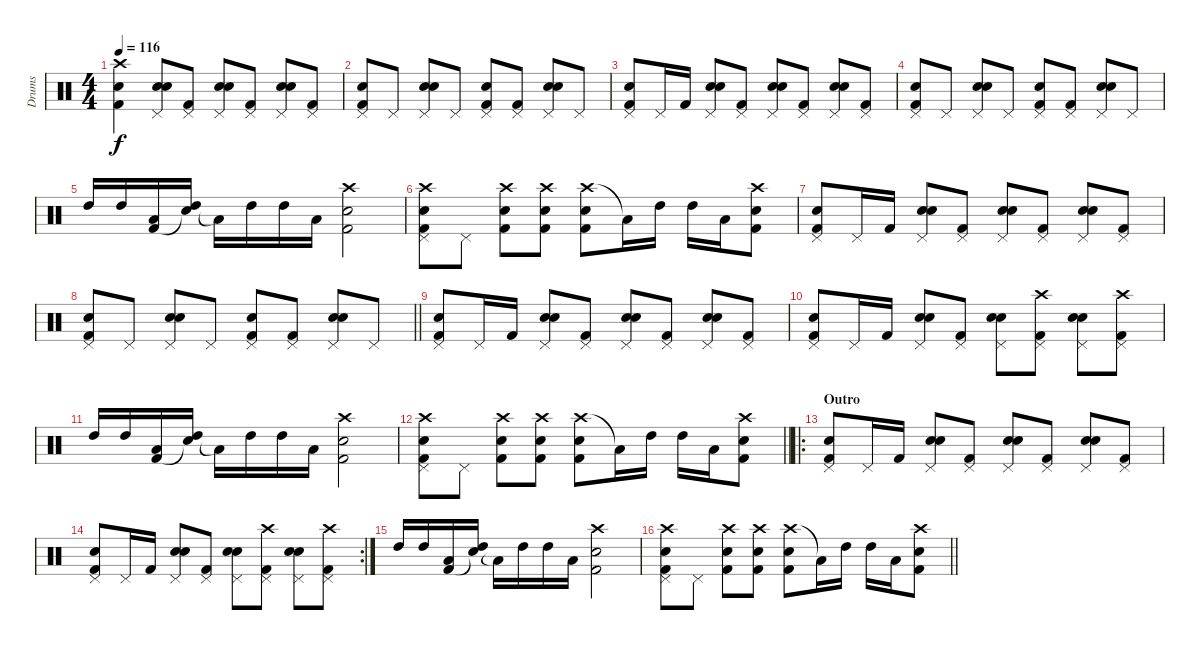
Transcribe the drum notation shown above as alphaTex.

\track ("Drums" "Drums") {instrument percussion}
\staff {score}
\articulation defaults
\ts (4 4)
\tempo 116
\clef neutral
\ks c
("Crash high (hit)" "Snare (hit) 2" "Kick (hit) 2").4{dy f} ("Hand Clap (hit)" "Pedal Hi-Hat (hit)" "Snare (hit) 2").8 ("Pedal Hi-Hat (hit)" "Kick (hit) 2").8 ("Hand Clap (hit)" "Pedal Hi-Hat (hit)" "Snare (hit) 2").8 ("Pedal Hi-Hat (hit)" "Kick (hit) 2").8 ("Hand Clap (hit)" "Pedal Hi-Hat (hit)" "Snare (hit) 2").8 ("Pedal Hi-Hat (hit)" "Kick (hit) 2").8 |
("Hand Clap (hit)" "Pedal Hi-Hat (hit)" "Kick (hit) 2").8 "Pedal Hi-Hat (hit)".8 ("Hand Clap (hit)" "Pedal Hi-Hat (hit)" "Snare (hit) 2").8 "Pedal Hi-Hat (hit)".8 ("Hand Clap (hit)" "Pedal Hi-Hat (hit)" "Kick (hit) 2").8 ("Pedal Hi-Hat (hit)" "Kick (hit) 2").8 ("Hand Clap (hit)" "Pedal Hi-Hat (hit)" "Snare (hit) 2").8 "Pedal Hi-Hat (hit)".8 |
("Hand Clap (hit)" "Pedal Hi-Hat (hit)" "Kick (hit) 2").8 "Pedal Hi-Hat (hit)".16 "Kick (hit) 2".16 ("Hand Clap (hit)" "Pedal Hi-Hat (hit)" "Snare (hit) 2").8 ("Pedal Hi-Hat (hit)" "Kick (hit) 2").8 ("Hand Clap (hit)" "Pedal Hi-Hat (hit)" "Snare (hit) 2").8 ("Pedal Hi-Hat (hit)" "Kick (hit) 2").8 ("Hand Clap (hit)" "Pedal Hi-Hat (hit)" "Snare (hit) 2").8 ("Pedal Hi-Hat (hit)" "Kick (hit) 2").8 |
("Hand Clap (hit)" "Pedal Hi-Hat (hit)" "Kick (hit) 2").8 "Pedal Hi-Hat (hit)".8 ("Hand Clap (hit)" "Pedal Hi-Hat (hit)" "Snare (hit) 2").8{volume 16} "Pedal Hi-Hat (hit)".8 ("Hand Clap (hit)" "Pedal Hi-Hat (hit)" "Kick (hit) 2").8 ("Pedal Hi-Hat (hit)" "Kick (hit) 2").8 ("Hand Clap (hit)" "Pedal Hi-Hat (hit)" "Snare (hit) 2").8 "Pedal Hi-Hat (hit)".8 |
"High Tom (hit)".16 "High Tom (hit)".16 ("Low Tom (hit)" "Kick (hit) 2").16 ("High Tom (hit)" "Snare (hit)"{t}).16 "Low Tom (hit)"{t}.16 "High Tom (hit)".16 "High Tom (hit)".16 "Low Tom (hit)".16 ("Crash high (hit)" "Electric Snare (hit)" "Kick (hit) 2").2 |
("Crash high (hit)" "Hand Clap (hit)" "Pedal Hi-Hat (hit)" "Kick (hit) 2").8 "Pedal Hi-Hat (hit)".8 ("Crash high (hit)" "Electric Snare (hit)" "Kick (hit) 2").8 ("Crash high (hit)" "Electric Snare (hit)" "Kick (hit) 2").8 ("Crash high (hit)" "Electric Snare (hit)" "Kick (hit) 2").8 "Low Tom (hit)"{t}.16 "High Tom (hit)".16 "High Tom (hit)".16 "Low Tom (hit)".16 ("Crash high (hit)" "Electric Snare (hit)" "Kick (hit) 2").8 |
("Hand Clap (hit)" "Pedal Hi-Hat (hit)" "Kick (hit) 2").8 "Pedal Hi-Hat (hit)".16 "Kick (hit) 2".16 ("Hand Clap (hit)" "Pedal Hi-Hat (hit)" "Snare (hit) 2").8 ("Pedal Hi-Hat (hit)" "Kick (hit) 2").8 ("Hand Clap (hit)" "Pedal Hi-Hat (hit)" "Snare (hit) 2").8 ("Pedal Hi-Hat (hit)" "Kick (hit) 2").8 ("Hand Clap (hit)" "Pedal Hi-Hat (hit)" "Snare (hit) 2").8 ("Pedal Hi-Hat (hit)" "Kick (hit) 2").8 |
\barLineRight lightlight
("Hand Clap (hit)" "Pedal Hi-Hat (hit)" "Kick (hit) 2").8 "Pedal Hi-Hat (hit)".8 ("Hand Clap (hit)" "Pedal Hi-Hat (hit)" "Snare (hit) 2").8{volume 16} "Pedal Hi-Hat (hit)".8 ("Hand Clap (hit)" "Pedal Hi-Hat (hit)" "Kick (hit) 2").8 ("Pedal Hi-Hat (hit)" "Kick (hit) 2").8 ("Hand Clap (hit)" "Pedal Hi-Hat (hit)" "Snare (hit) 2").8 "Pedal Hi-Hat (hit)".8 |
("Hand Clap (hit)" "Pedal Hi-Hat (hit)" "Kick (hit) 2").8 "Pedal Hi-Hat (hit)".16 "Kick (hit) 2".16 ("Hand Clap (hit)" "Pedal Hi-Hat (hit)" "Snare (hit) 2").8 ("Pedal Hi-Hat (hit)" "Kick (hit) 2").8 ("Hand Clap (hit)" "Pedal Hi-Hat (hit)" "Snare (hit) 2").8 ("Pedal Hi-Hat (hit)" "Kick (hit) 2").8 ("Hand Clap (hit)" "Pedal Hi-Hat (hit)" "Snare (hit) 2").8 ("Pedal Hi-Hat (hit)" "Kick (hit) 2").8 |
("Hand Clap (hit)" "Pedal Hi-Hat (hit)" "Kick (hit) 2").8 "Pedal Hi-Hat (hit)".16 "Kick (hit) 2".16 ("Hand Clap (hit)" "Pedal Hi-Hat (hit)" "Snare (hit) 2").8 ("Pedal Hi-Hat (hit)" "Kick (hit) 2").8 ("Hand Clap (hit)" "Pedal Hi-Hat (hit)" "Snare (hit) 2").8 ("Crash high (hit)" "Pedal Hi-Hat (hit)" "Kick (hit) 2").8 ("Hand Clap (hit)" "Pedal Hi-Hat (hit)" "Snare (hit) 2").8 ("Crash high (hit)" "Pedal Hi-Hat (hit)" "Kick (hit) 2").8 |
"High Tom (hit)".16 "High Tom (hit)".16 ("Low Tom (hit)" "Kick (hit) 2").16 ("High Tom (hit)" "Snare (hit)"{t}).16 "Low Tom (hit)"{t}.16 "High Tom (hit)".16 "High Tom (hit)".16 "Low Tom (hit)".16 ("Crash high (hit)" "Electric Snare (hit)" "Kick (hit) 2").2 |
\barLineRight lightlight
("Crash high (hit)" "Hand Clap (hit)" "Pedal Hi-Hat (hit)" "Kick (hit) 2").8 "Pedal Hi-Hat (hit)".8 ("Crash high (hit)" "Electric Snare (hit)" "Kick (hit) 2").8 ("Crash high (hit)" "Electric Snare (hit)" "Kick (hit) 2").8 ("Crash high (hit)" "Electric Snare (hit)" "Kick (hit) 2").8 "Low Tom (hit)"{t}.16 "High Tom (hit)".16 "High Tom (hit)".16 "Low Tom (hit)".16 ("Crash high (hit)" "Electric Snare (hit)" "Kick (hit) 2").8 |
\ro
\section ("" "Outro")
("Hand Clap (hit)" "Pedal Hi-Hat (hit)" "Kick (hit) 2").8 "Pedal Hi-Hat (hit)".16 "Kick (hit) 2".16 ("Hand Clap (hit)" "Pedal Hi-Hat (hit)" "Snare (hit) 2").8 ("Pedal Hi-Hat (hit)" "Kick (hit) 2").8 ("Hand Clap (hit)" "Pedal Hi-Hat (hit)" "Snare (hit) 2").8 ("Pedal Hi-Hat (hit)" "Kick (hit) 2").8 ("Hand Clap (hit)" "Pedal Hi-Hat (hit)" "Snare (hit) 2").8 ("Pedal Hi-Hat (hit)" "Kick (hit) 2").8 |
\rc 2
("Hand Clap (hit)" "Pedal Hi-Hat (hit)" "Kick (hit) 2").8 "Pedal Hi-Hat (hit)".16 "Kick (hit) 2".16 ("Hand Clap (hit)" "Pedal Hi-Hat (hit)" "Snare (hit) 2").8 ("Pedal Hi-Hat (hit)" "Kick (hit) 2").8 ("Hand Clap (hit)" "Pedal Hi-Hat (hit)" "Snare (hit) 2").8 ("Crash high (hit)" "Pedal Hi-Hat (hit)" "Kick (hit) 2").8 ("Hand Clap (hit)" "Pedal Hi-Hat (hit)" "Snare (hit) 2").8 ("Crash high (hit)" "Pedal Hi-Hat (hit)" "Kick (hit) 2").8 |
"High Tom (hit)".16 "High Tom (hit)".16 ("Low Tom (hit)" "Kick (hit) 2").16 ("High Tom (hit)" "Snare (hit)"{t}).16 "Low Tom (hit)"{t}.16 "High Tom (hit)".16 "High Tom (hit)".16 "Low Tom (hit)".16 ("Crash high (hit)" "Electric Snare (hit)" "Kick (hit) 2").2 |
\barLineRight lightlight
("Crash high (hit)" "Hand Clap (hit)" "Pedal Hi-Hat (hit)" "Kick (hit) 2").8 "Pedal Hi-Hat (hit)".8 ("Crash high (hit)" "Electric Snare (hit)" "Kick (hit) 2").8 ("Crash high (hit)" "Electric Snare (hit)" "Kick (hit) 2").8 ("Crash high (hit)" "Electric Snare (hit)" "Kick (hit) 2").8 "Low Tom (hit)"{t}.16 "High Tom (hit)".16 "High Tom (hit)".16 "Low Tom (hit)".16 ("Crash high (hit)" "Electric Snare (hit)" "Kick (hit) 2").8
